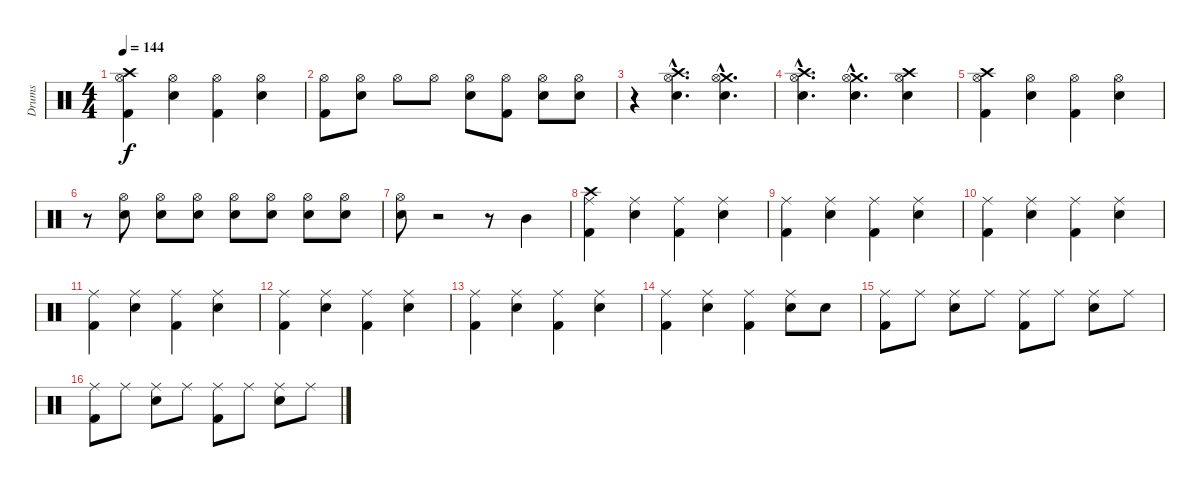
\track ("Drums" "Drums") {instrument percussion}
\staff {score}
\articulation defaults
\ts (4 4)
\tempo 144
\clef neutral
\ks c
("Crash high (hit)" "Hi-Hat (open)" "Kick (hit) 2").4{dy f} ("Hi-Hat (open)" "Electric Snare (hit)").4 ("Hi-Hat (open)" "Kick (hit) 2").4 ("Hi-Hat (open)" "Electric Snare (hit)").4 |
("Hi-Hat (open)" "Kick (hit) 2").8 ("Hi-Hat (open)" "Electric Snare (hit)").8 "Hi-Hat (open)".8 "Hi-Hat (open)".8 ("Hi-Hat (open)" "Electric Snare (hit)").8 ("Hi-Hat (open)" "Kick (hit) 2").8 ("Hi-Hat (open)" "Electric Snare (hit)").8 ("Hi-Hat (open)" "Electric Snare (hit)").8 |
r.4 ("Crash high (hit)"{hac} "Hi-Hat (open)"{hac} "Electric Snare (hit)"{hac}).4{d} ("Crash medium (hit)"{hac} "Hi-Hat (open)"{hac} "Electric Snare (hit)"{hac}).4{d} |
("Crash high (hit)"{hac} "Hi-Hat (open)"{hac} "Electric Snare (hit)"{hac}).4{d} ("Crash medium (hit)"{hac} "Hi-Hat (open)"{hac} "Electric Snare (hit)"{hac}).4{d} ("Crash high (hit)" "Hi-Hat (open)" "Electric Snare (hit)").4 |
("Crash high (hit)" "Hi-Hat (open)" "Kick (hit) 2").4 ("Hi-Hat (open)" "Electric Snare (hit)").4 ("Hi-Hat (open)" "Kick (hit) 2").4 ("Hi-Hat (open)" "Electric Snare (hit)").4 |
r.8 ("Hi-Hat (open)" "Electric Snare (hit)").8 ("Hi-Hat (open)" "Electric Snare (hit)").8 ("Hi-Hat (open)" "Electric Snare (hit)").8 ("Hi-Hat (open)" "Electric Snare (hit)").8 ("Hi-Hat (open)" "Electric Snare (hit)").8 ("Hi-Hat (open)" "Electric Snare (hit)").8 ("Hi-Hat (open)" "Electric Snare (hit)").8 |
("Hi-Hat (open)" "Electric Snare (hit)").8 r.2 r.8 "Mid Tom (hit)".4 |
("Crash high (hit)" "Ride (middle)" "Kick (hit) 2").4 ("Ride (middle)" "Electric Snare (hit)").4 ("Ride (middle)" "Kick (hit) 2").4 ("Ride (middle)" "Electric Snare (hit)").4 |
("Ride (middle)" "Kick (hit) 2").4 ("Ride (middle)" "Electric Snare (hit)").4 ("Ride (middle)" "Kick (hit) 2").4 ("Ride (middle)" "Electric Snare (hit)").4 |
("Ride (middle)" "Kick (hit) 2").4 ("Ride (middle)" "Electric Snare (hit)").4 ("Ride (middle)" "Kick (hit) 2").4 ("Ride (middle)" "Electric Snare (hit)").4 |
("Ride (middle)" "Kick (hit) 2").4 ("Ride (middle)" "Electric Snare (hit)").4 ("Ride (middle)" "Kick (hit) 2").4 ("Ride (middle)" "Electric Snare (hit)").4 |
("Ride (middle)" "Kick (hit) 2").4 ("Ride (middle)" "Electric Snare (hit)").4 ("Ride (middle)" "Kick (hit) 2").4 ("Ride (middle)" "Electric Snare (hit)").4 |
("Ride (middle)" "Kick (hit) 2").4 ("Ride (middle)" "Electric Snare (hit)").4 ("Ride (middle)" "Kick (hit) 2").4 ("Ride (middle)" "Electric Snare (hit)").4 |
("Ride (middle)" "Kick (hit) 2").4 ("Ride (middle)" "Electric Snare (hit)").4 ("Ride (middle)" "Kick (hit) 2").4 ("Ride (middle)" "Electric Snare (hit)").8 "Electric Snare (hit)".8 |
("Ride (middle)" "Kick (hit) 2").8 "Ride (middle)".8 ("Ride (middle)" "Electric Snare (hit)").8 "Ride (middle)".8 ("Ride (middle)" "Kick (hit) 2").8 "Ride (middle)".8 ("Ride (middle)" "Electric Snare (hit)").8 "Ride (middle)".8 |
("Ride (middle)" "Kick (hit) 2").8 "Ride (middle)".8 ("Ride (middle)" "Electric Snare (hit)").8 "Ride (middle)".8 ("Ride (middle)" "Kick (hit) 2").8 "Ride (middle)".8 ("Ride (middle)" "Electric Snare (hit)").8 "Ride (middle)".8
